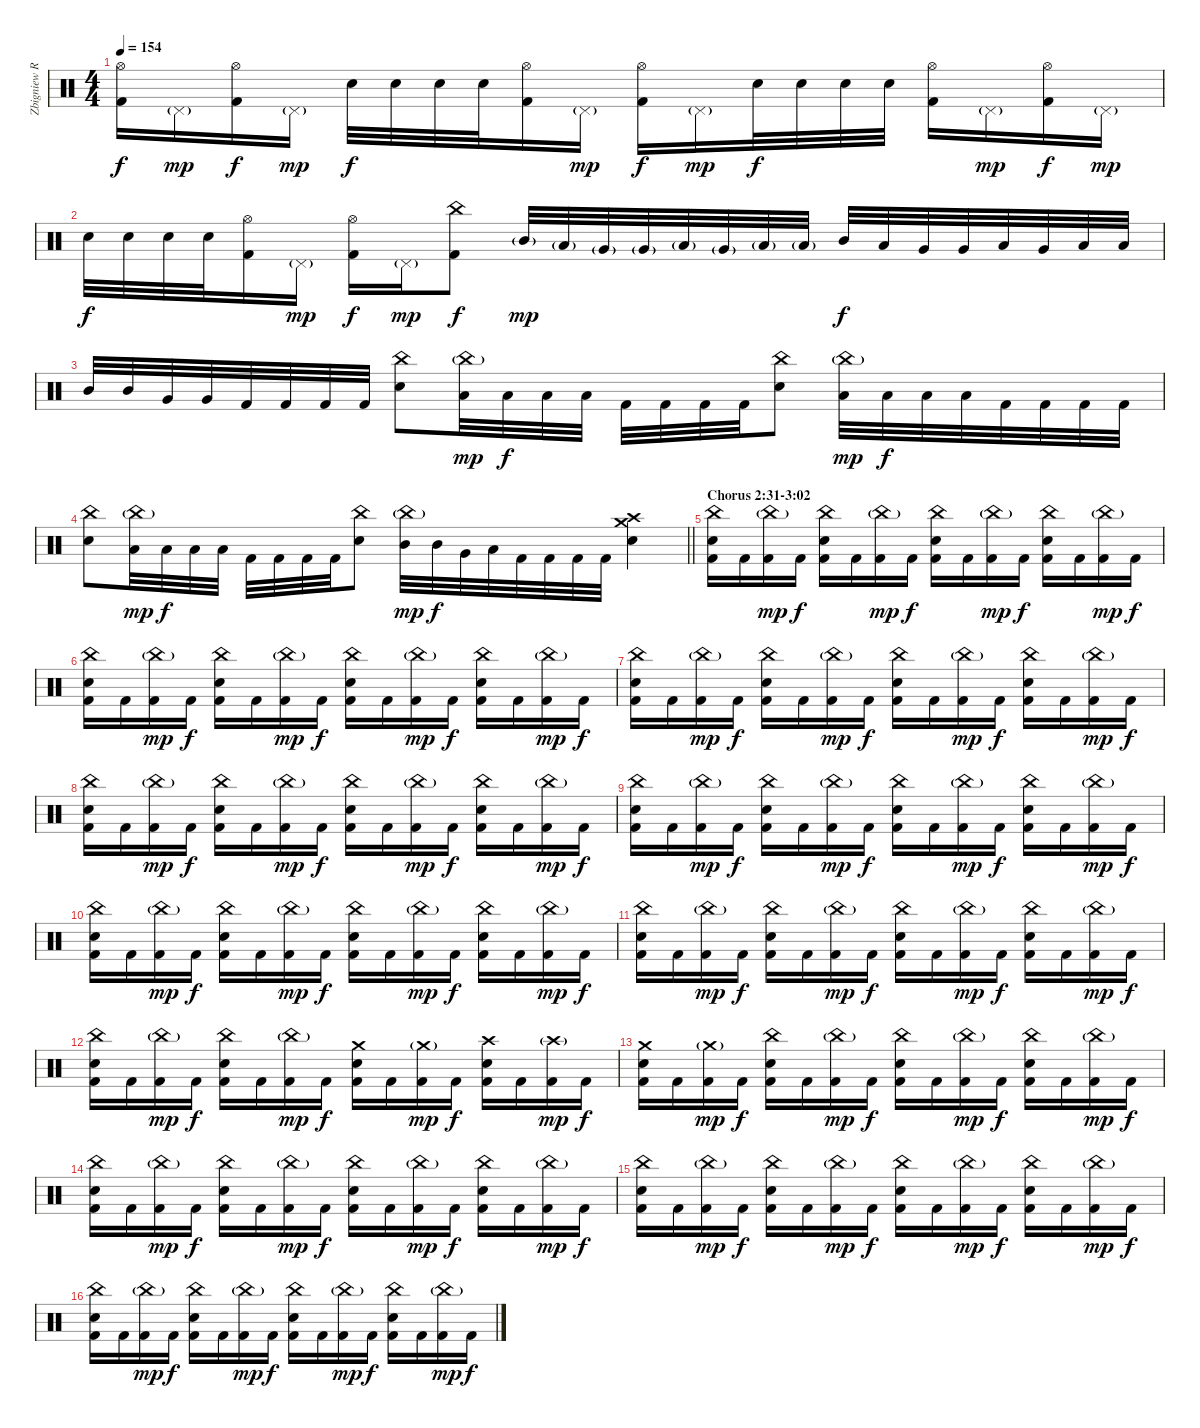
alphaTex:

\track ("Zbigniew Robert \"Inferno\" Prominski" "Zbigniew R") {instrument percussion}
\staff {score}
\articulation defaults
\ts (4 4)
\tempo 154
\clef neutral
\ks c
("Hi-Hat (open)" "Kick (hit) 2").16{dy f} "Pedal Hi-Hat (hit)"{g}.16{dy mp} ("Hi-Hat (open)" "Kick (hit) 2").16{dy f} "Pedal Hi-Hat (hit)"{g}.16{dy mp} "Snare (hit) 2".32{dy f} "Snare (hit) 2".32 "Snare (hit) 2".32 "Snare (hit) 2".32 ("Hi-Hat (open)" "Kick (hit) 2").16 "Pedal Hi-Hat (hit)"{g}.16{dy mp} ("Hi-Hat (open)" "Kick (hit) 2").16{dy f} "Pedal Hi-Hat (hit)"{g}.16{dy mp} "Snare (hit) 2".32{dy f} "Snare (hit) 2".32 "Snare (hit) 2".32 "Snare (hit) 2".32 ("Hi-Hat (open)" "Kick (hit) 2").16 "Pedal Hi-Hat (hit)"{g}.16{dy mp} ("Hi-Hat (open)" "Kick (hit) 2").16{dy f} "Pedal Hi-Hat (hit)"{g}.16{dy mp} |
"Snare (hit) 2".32{dy f} "Snare (hit) 2".32 "Snare (hit) 2".32 "Snare (hit) 2".32 ("Hi-Hat (open)" "Kick (hit) 2").16 "Pedal Hi-Hat (hit)"{g}.16{dy mp} ("Hi-Hat (open)" "Kick (hit) 2").16{dy f} "Pedal Hi-Hat (hit)"{g}.16{dy mp} ("China (hit)" "Kick (hit) 2").8{dy f} "Mid Tom (hit)"{g}.32{dy mp} "Low Tom (hit)"{g}.32 "Very Low Tom (hit)"{g}.32 "Very Low Tom (hit)"{g}.32 "Low Tom (hit)"{g}.32 "Very Low Tom (hit)"{g}.32 "Low Floor Tom (hit)"{g}.32 "Low Floor Tom (hit)"{g}.32 "Mid Tom (hit)".32{dy f} "Low Tom (hit)".32 "Very Low Tom (hit)".32 "Very Low Tom (hit)".32 "Low Tom (hit)".32 "Very Low Tom (hit)".32 "Low Floor Tom (hit)".32 "Low Floor Tom (hit)".32 |
"Mid Tom (hit)".32 "Mid Tom (hit)".32 "Very Low Tom (hit)".32 "Very Low Tom (hit)".32 "Kick (hit) 2".32 "Kick (hit) 2".32 "Kick (hit) 2".32 "Kick (hit) 2".32 ("China (hit)" "Snare (hit) 2").8 ("China (hit)"{g} "Low Tom (hit)").32{dy mp} "Low Tom (hit)".32{dy f} "Low Floor Tom (hit)".32 "Low Floor Tom (hit)".32 "Kick (hit) 2".32 "Kick (hit) 2".32 "Kick (hit) 2".32 "Kick (hit) 2".32 ("China (hit)" "Snare (hit) 2").8 ("China (hit)"{g} "Low Tom (hit)").32{dy mp} "Low Tom (hit)".32{dy f} "Low Floor Tom (hit)".32 "Low Floor Tom (hit)".32 "Kick (hit) 2".32 "Kick (hit) 2".32 "Kick (hit) 2".32 "Kick (hit) 2".32 |
\barLineRight lightlight
("China (hit)" "Snare (hit) 2").8 ("China (hit)"{g} "Low Tom (hit)").32{dy mp} "Low Tom (hit)".32{dy f} "Low Floor Tom (hit)".32 "Low Floor Tom (hit)".32 "Kick (hit) 2".32 "Kick (hit) 2".32 "Kick (hit) 2".32 "Kick (hit) 2".32 ("China (hit)" "Snare (hit) 2").8 ("China (hit)"{g} "Mid Tom (hit)").32{dy mp} "Mid Tom (hit)".32{dy f} "Very Low Tom (hit)".32 "Low Floor Tom (hit)".32 "Kick (hit) 2".32 "Kick (hit) 2".32 "Kick (hit) 2".32 "Kick (hit) 2".32 ("Crash medium (hit)" "Crash high (hit)" "Snare (hit) 2").4 |
\section ("" "Chorus 2:31-3:02")
("China (hit)" "Snare (hit) 2" "Kick (hit) 2").16 "Kick (hit) 2".16 ("China (hit)"{g} "Kick (hit) 2").16{dy mp} "Kick (hit) 2".16{dy f} ("China (hit)" "Snare (hit) 2" "Kick (hit) 2").16 "Kick (hit) 2".16 ("China (hit)"{g} "Kick (hit) 2").16{dy mp} "Kick (hit) 2".16{dy f} ("China (hit)" "Snare (hit) 2" "Kick (hit) 2").16 "Kick (hit) 2".16 ("China (hit)"{g} "Kick (hit) 2").16{dy mp} "Kick (hit) 2".16{dy f} ("China (hit)" "Snare (hit) 2" "Kick (hit) 2").16 "Kick (hit) 2".16 ("China (hit)"{g} "Kick (hit) 2").16{dy mp} "Kick (hit) 2".16{dy f} |
("China (hit)" "Snare (hit) 2" "Kick (hit) 2").16 "Kick (hit) 2".16 ("China (hit)"{g} "Kick (hit) 2").16{dy mp} "Kick (hit) 2".16{dy f} ("China (hit)" "Snare (hit) 2" "Kick (hit) 2").16 "Kick (hit) 2".16 ("China (hit)"{g} "Kick (hit) 2").16{dy mp} "Kick (hit) 2".16{dy f} ("China (hit)" "Snare (hit) 2" "Kick (hit) 2").16 "Kick (hit) 2".16 ("China (hit)"{g} "Kick (hit) 2").16{dy mp} "Kick (hit) 2".16{dy f} ("China (hit)" "Snare (hit) 2" "Kick (hit) 2").16 "Kick (hit) 2".16 ("China (hit)"{g} "Kick (hit) 2").16{dy mp} "Kick (hit) 2".16{dy f} |
("China (hit)" "Snare (hit) 2" "Kick (hit) 2").16 "Kick (hit) 2".16 ("China (hit)"{g} "Kick (hit) 2").16{dy mp} "Kick (hit) 2".16{dy f} ("China (hit)" "Snare (hit) 2" "Kick (hit) 2").16 "Kick (hit) 2".16 ("China (hit)"{g} "Kick (hit) 2").16{dy mp} "Kick (hit) 2".16{dy f} ("China (hit)" "Snare (hit) 2" "Kick (hit) 2").16 "Kick (hit) 2".16 ("China (hit)"{g} "Kick (hit) 2").16{dy mp} "Kick (hit) 2".16{dy f} ("China (hit)" "Snare (hit) 2" "Kick (hit) 2").16 "Kick (hit) 2".16 ("China (hit)"{g} "Kick (hit) 2").16{dy mp} "Kick (hit) 2".16{dy f} |
("China (hit)" "Snare (hit) 2" "Kick (hit) 2").16 "Kick (hit) 2".16 ("China (hit)"{g} "Kick (hit) 2").16{dy mp} "Kick (hit) 2".16{dy f} ("China (hit)" "Snare (hit) 2" "Kick (hit) 2").16 "Kick (hit) 2".16 ("China (hit)"{g} "Kick (hit) 2").16{dy mp} "Kick (hit) 2".16{dy f} ("China (hit)" "Snare (hit) 2" "Kick (hit) 2").16 "Kick (hit) 2".16 ("China (hit)"{g} "Kick (hit) 2").16{dy mp} "Kick (hit) 2".16{dy f} ("China (hit)" "Snare (hit) 2" "Kick (hit) 2").16 "Kick (hit) 2".16 ("China (hit)"{g} "Kick (hit) 2").16{dy mp} "Kick (hit) 2".16{dy f} |
("China (hit)" "Snare (hit) 2" "Kick (hit) 2").16 "Kick (hit) 2".16 ("China (hit)"{g} "Kick (hit) 2").16{dy mp} "Kick (hit) 2".16{dy f} ("China (hit)" "Snare (hit) 2" "Kick (hit) 2").16 "Kick (hit) 2".16 ("China (hit)"{g} "Kick (hit) 2").16{dy mp} "Kick (hit) 2".16{dy f} ("China (hit)" "Snare (hit) 2" "Kick (hit) 2").16 "Kick (hit) 2".16 ("China (hit)"{g} "Kick (hit) 2").16{dy mp} "Kick (hit) 2".16{dy f} ("China (hit)" "Snare (hit) 2" "Kick (hit) 2").16 "Kick (hit) 2".16 ("China (hit)"{g} "Kick (hit) 2").16{dy mp} "Kick (hit) 2".16{dy f} |
("China (hit)" "Snare (hit) 2" "Kick (hit) 2").16 "Kick (hit) 2".16 ("China (hit)"{g} "Kick (hit) 2").16{dy mp} "Kick (hit) 2".16{dy f} ("China (hit)" "Snare (hit) 2" "Kick (hit) 2").16 "Kick (hit) 2".16 ("China (hit)"{g} "Kick (hit) 2").16{dy mp} "Kick (hit) 2".16{dy f} ("China (hit)" "Snare (hit) 2" "Kick (hit) 2").16 "Kick (hit) 2".16 ("China (hit)"{g} "Kick (hit) 2").16{dy mp} "Kick (hit) 2".16{dy f} ("China (hit)" "Snare (hit) 2" "Kick (hit) 2").16 "Kick (hit) 2".16 ("China (hit)"{g} "Kick (hit) 2").16{dy mp} "Kick (hit) 2".16{dy f} |
("China (hit)" "Snare (hit) 2" "Kick (hit) 2").16 "Kick (hit) 2".16 ("China (hit)"{g} "Kick (hit) 2").16{dy mp} "Kick (hit) 2".16{dy f} ("China (hit)" "Snare (hit) 2" "Kick (hit) 2").16 "Kick (hit) 2".16 ("China (hit)"{g} "Kick (hit) 2").16{dy mp} "Kick (hit) 2".16{dy f} ("China (hit)" "Snare (hit) 2" "Kick (hit) 2").16 "Kick (hit) 2".16 ("China (hit)"{g} "Kick (hit) 2").16{dy mp} "Kick (hit) 2".16{dy f} ("China (hit)" "Snare (hit) 2" "Kick (hit) 2").16 "Kick (hit) 2".16 ("China (hit)"{g} "Kick (hit) 2").16{dy mp} "Kick (hit) 2".16{dy f} |
("China (hit)" "Snare (hit) 2" "Kick (hit) 2").16 "Kick (hit) 2".16 ("China (hit)"{g} "Kick (hit) 2").16{dy mp} "Kick (hit) 2".16{dy f} ("China (hit)" "Snare (hit) 2" "Kick (hit) 2").16 "Kick (hit) 2".16 ("China (hit)"{g} "Kick (hit) 2").16{dy mp} "Kick (hit) 2".16{dy f} ("Crash medium (hit)" "Snare (hit) 2" "Kick (hit) 2").16 "Kick (hit) 2".16 ("Crash medium (hit)"{g} "Kick (hit) 2").16{dy mp} "Kick (hit) 2".16{dy f} ("Crash high (hit)" "Snare (hit) 2" "Kick (hit) 2").16 "Kick (hit) 2".16 ("Crash high (hit)"{g} "Kick (hit) 2").16{dy mp} "Kick (hit) 2".16{dy f} |
("Crash medium (hit)" "Snare (hit) 2" "Kick (hit) 2").16 "Kick (hit) 2".16 ("Crash medium (hit)"{g} "Kick (hit) 2").16{dy mp} "Kick (hit) 2".16{dy f} ("China (hit)" "Snare (hit) 2" "Kick (hit) 2").16 "Kick (hit) 2".16 ("China (hit)"{g} "Kick (hit) 2").16{dy mp} "Kick (hit) 2".16{dy f} ("China (hit)" "Snare (hit) 2" "Kick (hit) 2").16 "Kick (hit) 2".16 ("China (hit)"{g} "Kick (hit) 2").16{dy mp} "Kick (hit) 2".16{dy f} ("China (hit)" "Snare (hit) 2" "Kick (hit) 2").16 "Kick (hit) 2".16 ("China (hit)"{g} "Kick (hit) 2").16{dy mp} "Kick (hit) 2".16{dy f} |
("China (hit)" "Snare (hit) 2" "Kick (hit) 2").16 "Kick (hit) 2".16 ("China (hit)"{g} "Kick (hit) 2").16{dy mp} "Kick (hit) 2".16{dy f} ("China (hit)" "Snare (hit) 2" "Kick (hit) 2").16 "Kick (hit) 2".16 ("China (hit)"{g} "Kick (hit) 2").16{dy mp} "Kick (hit) 2".16{dy f} ("China (hit)" "Snare (hit) 2" "Kick (hit) 2").16 "Kick (hit) 2".16 ("China (hit)"{g} "Kick (hit) 2").16{dy mp} "Kick (hit) 2".16{dy f} ("China (hit)" "Snare (hit) 2" "Kick (hit) 2").16 "Kick (hit) 2".16 ("China (hit)"{g} "Kick (hit) 2").16{dy mp} "Kick (hit) 2".16{dy f} |
("China (hit)" "Snare (hit) 2" "Kick (hit) 2").16 "Kick (hit) 2".16 ("China (hit)"{g} "Kick (hit) 2").16{dy mp} "Kick (hit) 2".16{dy f} ("China (hit)" "Snare (hit) 2" "Kick (hit) 2").16 "Kick (hit) 2".16 ("China (hit)"{g} "Kick (hit) 2").16{dy mp} "Kick (hit) 2".16{dy f} ("China (hit)" "Snare (hit) 2" "Kick (hit) 2").16 "Kick (hit) 2".16 ("China (hit)"{g} "Kick (hit) 2").16{dy mp} "Kick (hit) 2".16{dy f} ("China (hit)" "Snare (hit) 2" "Kick (hit) 2").16 "Kick (hit) 2".16 ("China (hit)"{g} "Kick (hit) 2").16{dy mp} "Kick (hit) 2".16{dy f} |
("China (hit)" "Snare (hit) 2" "Kick (hit) 2").16 "Kick (hit) 2".16 ("China (hit)"{g} "Kick (hit) 2").16{dy mp} "Kick (hit) 2".16{dy f} ("China (hit)" "Snare (hit) 2" "Kick (hit) 2").16 "Kick (hit) 2".16 ("China (hit)"{g} "Kick (hit) 2").16{dy mp} "Kick (hit) 2".16{dy f} ("China (hit)" "Snare (hit) 2" "Kick (hit) 2").16 "Kick (hit) 2".16 ("China (hit)"{g} "Kick (hit) 2").16{dy mp} "Kick (hit) 2".16{dy f} ("China (hit)" "Snare (hit) 2" "Kick (hit) 2").16 "Kick (hit) 2".16 ("China (hit)"{g} "Kick (hit) 2").16{dy mp} "Kick (hit) 2".16{dy f}
